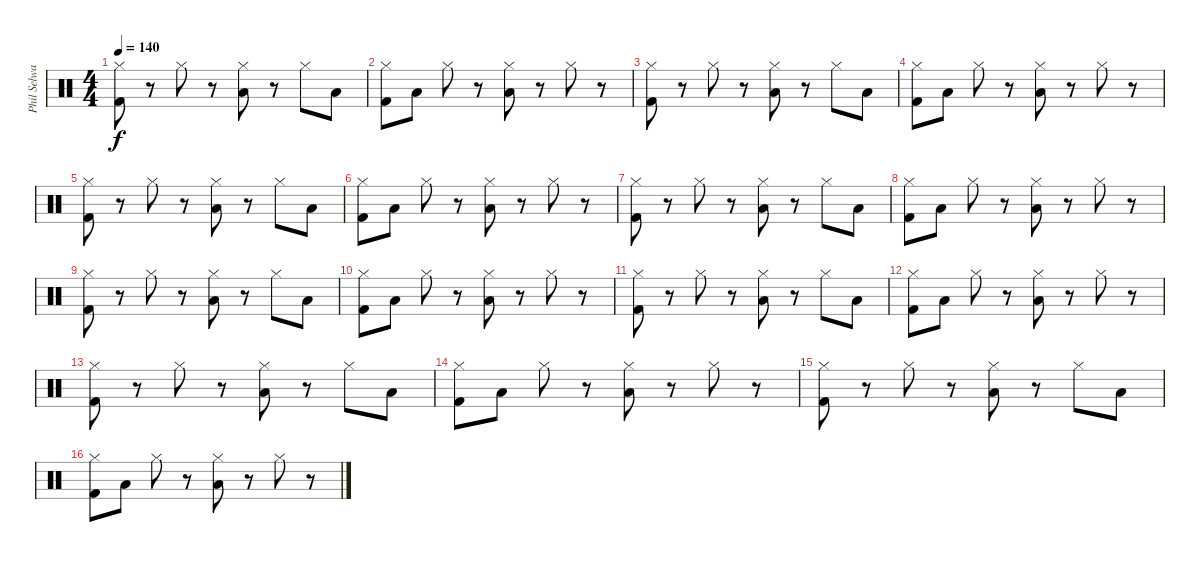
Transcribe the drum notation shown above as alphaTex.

\track ("Phil Selway" "Phil Selwa") {instrument percussion}
\staff {score}
\articulation defaults
\ts (4 4)
\tempo 140
\clef neutral
\ks c
("Hi-Hat (closed)" "Kick (hit) 2").8{dy f} r.8 "Hi-Hat (closed)".8 r.8 ("Hi-Hat (closed)" "Low Tom (hit)").8 r.8 "Hi-Hat (closed)".8 "Low Tom (hit)".8 |
("Hi-Hat (closed)" "Kick (hit) 2").8 "Low Tom (hit)".8 "Hi-Hat (closed)".8 r.8 ("Hi-Hat (closed)" "Low Tom (hit)").8 r.8 "Hi-Hat (closed)".8 r.8 |
("Hi-Hat (closed)" "Kick (hit) 2").8 r.8 "Hi-Hat (closed)".8 r.8 ("Hi-Hat (closed)" "Low Tom (hit)").8 r.8 "Hi-Hat (closed)".8 "Low Tom (hit)".8 |
("Hi-Hat (closed)" "Kick (hit) 2").8 "Low Tom (hit)".8 "Hi-Hat (closed)".8 r.8 ("Hi-Hat (closed)" "Low Tom (hit)").8 r.8 "Hi-Hat (closed)".8 r.8 |
("Hi-Hat (closed)" "Kick (hit) 2").8 r.8 "Hi-Hat (closed)".8 r.8 ("Hi-Hat (closed)" "Low Tom (hit)").8 r.8 "Hi-Hat (closed)".8 "Low Tom (hit)".8 |
("Hi-Hat (closed)" "Kick (hit) 2").8 "Low Tom (hit)".8 "Hi-Hat (closed)".8 r.8 ("Hi-Hat (closed)" "Low Tom (hit)").8 r.8 "Hi-Hat (closed)".8 r.8 |
("Hi-Hat (closed)" "Kick (hit) 2").8 r.8 "Hi-Hat (closed)".8 r.8 ("Hi-Hat (closed)" "Low Tom (hit)").8 r.8 "Hi-Hat (closed)".8 "Low Tom (hit)".8 |
("Hi-Hat (closed)" "Kick (hit) 2").8 "Low Tom (hit)".8 "Hi-Hat (closed)".8 r.8 ("Hi-Hat (closed)" "Low Tom (hit)").8 r.8 "Hi-Hat (closed)".8 r.8 |
("Hi-Hat (closed)" "Kick (hit) 2").8 r.8 "Hi-Hat (closed)".8 r.8 ("Hi-Hat (closed)" "Low Tom (hit)").8 r.8 "Hi-Hat (closed)".8 "Low Tom (hit)".8 |
("Hi-Hat (closed)" "Kick (hit) 2").8 "Low Tom (hit)".8 "Hi-Hat (closed)".8 r.8 ("Hi-Hat (closed)" "Low Tom (hit)").8 r.8 "Hi-Hat (closed)".8 r.8 |
("Hi-Hat (closed)" "Kick (hit) 2").8 r.8 "Hi-Hat (closed)".8 r.8 ("Hi-Hat (closed)" "Low Tom (hit)").8 r.8 "Hi-Hat (closed)".8 "Low Tom (hit)".8 |
("Hi-Hat (closed)" "Kick (hit) 2").8 "Low Tom (hit)".8 "Hi-Hat (closed)".8 r.8 ("Hi-Hat (closed)" "Low Tom (hit)").8 r.8 "Hi-Hat (closed)".8 r.8 |
("Hi-Hat (closed)" "Kick (hit) 2").8 r.8 "Hi-Hat (closed)".8 r.8 ("Hi-Hat (closed)" "Low Tom (hit)").8 r.8 "Hi-Hat (closed)".8 "Low Tom (hit)".8 |
("Hi-Hat (closed)" "Kick (hit) 2").8 "Low Tom (hit)".8 "Hi-Hat (closed)".8 r.8 ("Hi-Hat (closed)" "Low Tom (hit)").8 r.8 "Hi-Hat (closed)".8 r.8 |
("Hi-Hat (closed)" "Kick (hit) 2").8 r.8 "Hi-Hat (closed)".8 r.8 ("Hi-Hat (closed)" "Low Tom (hit)").8 r.8 "Hi-Hat (closed)".8 "Low Tom (hit)".8 |
("Hi-Hat (closed)" "Kick (hit) 2").8 "Low Tom (hit)".8 "Hi-Hat (closed)".8 r.8 ("Hi-Hat (closed)" "Low Tom (hit)").8 r.8 "Hi-Hat (closed)".8 r.8
